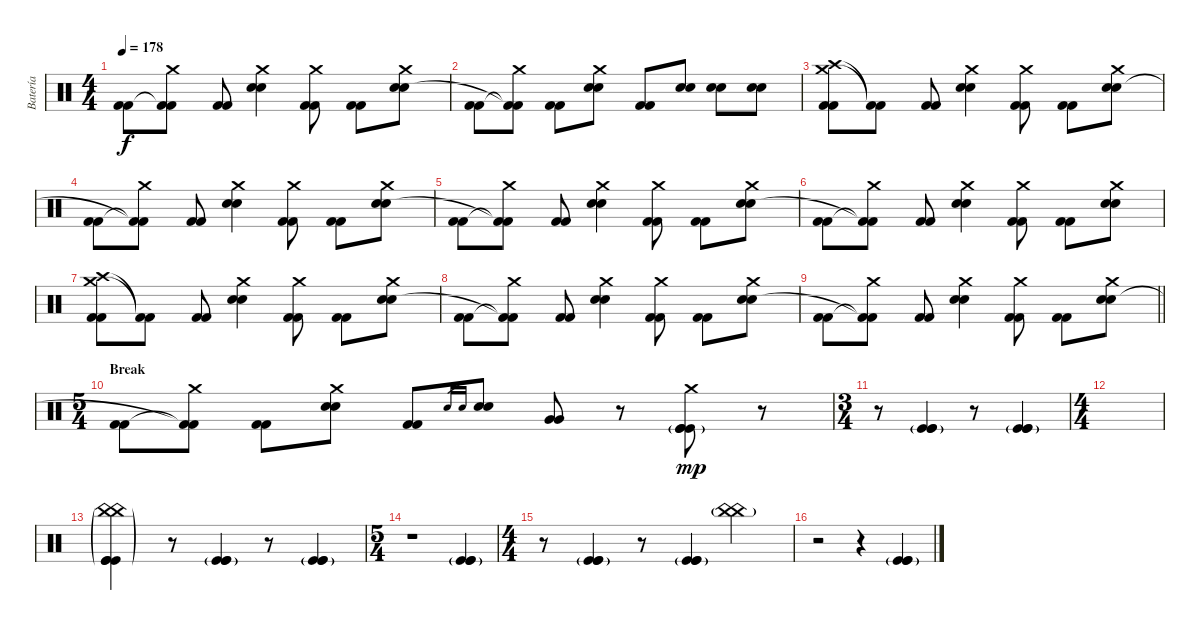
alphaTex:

\track ("Batería" "Batería") {instrument percussion}
\staff {score}
\articulation defaults
\ts (4 4)
\tempo 178
\clef neutral
\ks c
("Kick (hit) 2" "Kick (hit) 2").8{dy f} ("Crash medium (hit)" "Kick (hit) 2"{t} "Kick (hit) 2"{t}).8 ("Kick (hit) 2" "Kick (hit) 2").8 ("Crash medium (hit)" "Electric Snare (hit)" "Electric Snare (hit)").4 ("Crash medium (hit)" "Kick (hit) 2" "Kick (hit) 2").8 ("Kick (hit) 2" "Kick (hit) 2").8 ("Crash medium (hit)" "Electric Snare (hit)" "Electric Snare (hit)").8 |
("Kick (hit) 2" "Kick (hit) 2").8 ("Crash medium (hit)" "Kick (hit) 2"{t} "Kick (hit) 2"{t}).8 ("Kick (hit) 2" "Kick (hit) 2").8 ("Crash medium (hit)" "Electric Snare (hit)" "Electric Snare (hit)").8 ("Kick (hit) 2" "Kick (hit) 2").8 ("Electric Snare (hit)" "Electric Snare (hit)").8 ("Electric Snare (hit)" "Electric Snare (hit)").8 ("Electric Snare (hit)" "Electric Snare (hit)").8 |
("Crash medium (hit)" "Crash high (hit)" "Kick (hit) 2" "Kick (hit) 2").8 ("Kick (hit) 2"{t} "Kick (hit) 2"{t}).8 ("Kick (hit) 2" "Kick (hit) 2").8 ("Crash medium (hit)" "Electric Snare (hit)" "Electric Snare (hit)").4 ("Crash medium (hit)" "Kick (hit) 2" "Kick (hit) 2").8 ("Kick (hit) 2" "Kick (hit) 2").8 ("Crash medium (hit)" "Electric Snare (hit)" "Electric Snare (hit)").8 |
("Kick (hit) 2" "Kick (hit) 2").8 ("Crash medium (hit)" "Kick (hit) 2"{t} "Kick (hit) 2"{t}).8 ("Kick (hit) 2" "Kick (hit) 2").8 ("Crash medium (hit)" "Electric Snare (hit)" "Electric Snare (hit)").4 ("Crash medium (hit)" "Kick (hit) 2" "Kick (hit) 2").8 ("Kick (hit) 2" "Kick (hit) 2").8 ("Crash medium (hit)" "Electric Snare (hit)" "Electric Snare (hit)").8 |
("Kick (hit) 2" "Kick (hit) 2").8 ("Crash medium (hit)" "Kick (hit) 2"{t} "Kick (hit) 2"{t}).8 ("Kick (hit) 2" "Kick (hit) 2").8 ("Crash medium (hit)" "Electric Snare (hit)" "Electric Snare (hit)").4 ("Crash medium (hit)" "Kick (hit) 2" "Kick (hit) 2").8 ("Kick (hit) 2" "Kick (hit) 2").8 ("Crash medium (hit)" "Electric Snare (hit)" "Electric Snare (hit)").8 |
("Kick (hit) 2" "Kick (hit) 2").8 ("Crash medium (hit)" "Kick (hit) 2"{t} "Kick (hit) 2"{t}).8 ("Kick (hit) 2" "Kick (hit) 2").8 ("Crash medium (hit)" "Electric Snare (hit)" "Electric Snare (hit)").4 ("Crash medium (hit)" "Kick (hit) 2" "Kick (hit) 2").8 ("Kick (hit) 2" "Kick (hit) 2").8 ("Crash medium (hit)" "Electric Snare (hit)" "Electric Snare (hit)").8 |
("Crash medium (hit)" "Crash high (hit)" "Kick (hit) 2" "Kick (hit) 2").8 ("Kick (hit) 2"{t} "Kick (hit) 2"{t}).8 ("Kick (hit) 2" "Kick (hit) 2").8 ("Crash medium (hit)" "Electric Snare (hit)" "Electric Snare (hit)").4 ("Crash medium (hit)" "Kick (hit) 2" "Kick (hit) 2").8 ("Kick (hit) 2" "Kick (hit) 2").8 ("Crash medium (hit)" "Electric Snare (hit)" "Electric Snare (hit)").8 |
("Kick (hit) 2" "Kick (hit) 2").8 ("Crash medium (hit)" "Kick (hit) 2"{t} "Kick (hit) 2"{t}).8 ("Kick (hit) 2" "Kick (hit) 2").8 ("Crash medium (hit)" "Electric Snare (hit)" "Electric Snare (hit)").4 ("Crash medium (hit)" "Kick (hit) 2" "Kick (hit) 2").8 ("Kick (hit) 2" "Kick (hit) 2").8 ("Crash medium (hit)" "Electric Snare (hit)" "Electric Snare (hit)").8 |
\barLineRight lightlight
("Kick (hit) 2" "Kick (hit) 2").8 ("Crash medium (hit)" "Kick (hit) 2"{t} "Kick (hit) 2"{t}).8 ("Kick (hit) 2" "Kick (hit) 2").8 ("Crash medium (hit)" "Electric Snare (hit)" "Electric Snare (hit)").4 ("Crash medium (hit)" "Kick (hit) 2" "Kick (hit) 2").8 ("Kick (hit) 2" "Kick (hit) 2").8 ("Crash medium (hit)" "Electric Snare (hit)" "Electric Snare (hit)").8 |
\ts (5 4)
\section ("" "Break")
("Kick (hit) 2" "Kick (hit) 2").8 ("Crash medium (hit)" "Kick (hit) 2"{t} "Kick (hit) 2"{t}).8 ("Kick (hit) 2" "Kick (hit) 2").8 ("Crash medium (hit)" "Electric Snare (hit)" "Electric Snare (hit)").8 ("Kick (hit) 2" "Kick (hit) 2").8 "Electric Snare (hit)".16{gr} "Electric Snare (hit)".16{gr} ("Electric Snare (hit)" "Electric Snare (hit)").8 ("Very Low Tom (hit)" "Very Low Tom (hit)").8 r.8 ("Crash medium (hit)" "Kick (hit)"{g} "Kick (hit)"{g} "Kick (hit)"{g}).8{dy mp} r.8 |
\ts (3 4)
r.8 ("Kick (hit)"{g} "Kick (hit)"{g} "Kick (hit)"{g}).4 r.8 ("Kick (hit)"{g} "Kick (hit)"{g} "Kick (hit)"{g}).4 |
\ts (4 4)
|
("China (hit)"{g} "China (hit)"{g} "Kick (hit)"{g} "Kick (hit)"{g} "Kick (hit)"{g}).4 r.8 ("Kick (hit)"{g} "Kick (hit)"{g} "Kick (hit)"{g}).4 r.8 ("Kick (hit)"{g} "Kick (hit)"{g} "Kick (hit)"{g}).4 |
\ts (5 4)
r.1 ("Kick (hit)"{g} "Kick (hit)"{g} "Kick (hit)"{g}).4 |
\ts (4 4)
r.8 ("Kick (hit)"{g} "Kick (hit)"{g} "Kick (hit)"{g}).4 r.8 ("Kick (hit)"{g} "Kick (hit)"{g} "Kick (hit)"{g}).4 ("China (hit)"{g} "China (hit)"{g}).4 |
r.2 r.4 ("Kick (hit)"{g} "Kick (hit)"{g} "Kick (hit)"{g}).4
